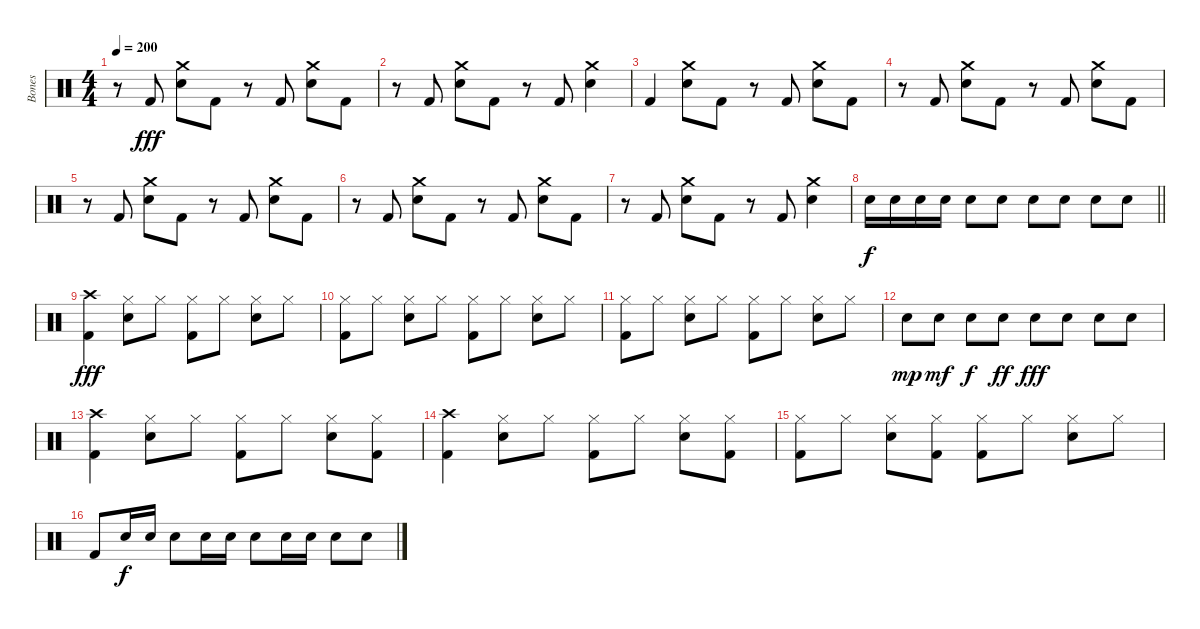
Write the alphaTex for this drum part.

\track ("Bones " "Bones ") {instrument percussion}
\staff {score}
\articulation defaults
\ts (4 4)
\tempo 200
\clef neutral
\ks c
r.8{dy fff} "Kick (hit) 2".8 ("Crash medium (hit)" "Snare (hit) 2").8 "Kick (hit) 2".8 r.8 "Kick (hit) 2".8 ("Crash medium (hit)" "Snare (hit) 2").8 "Kick (hit) 2".8 |
r.8 "Kick (hit) 2".8 ("Crash medium (hit)" "Snare (hit) 2").8 "Kick (hit) 2".8 r.8 "Kick (hit) 2".8 ("Crash medium (hit)" "Snare (hit) 2").4 |
"Kick (hit) 2".4 ("Crash medium (hit)" "Snare (hit) 2").8 "Kick (hit) 2".8 r.8 "Kick (hit) 2".8 ("Crash medium (hit)" "Snare (hit) 2").8 "Kick (hit) 2".8 |
r.8 "Kick (hit) 2".8 ("Crash medium (hit)" "Snare (hit) 2").8 "Kick (hit) 2".8 r.8 "Kick (hit) 2".8 ("Crash medium (hit)" "Snare (hit) 2").8 "Kick (hit) 2".8 |
r.8 "Kick (hit) 2".8 ("Crash medium (hit)" "Snare (hit) 2").8 "Kick (hit) 2".8 r.8 "Kick (hit) 2".8 ("Crash medium (hit)" "Snare (hit) 2").8 "Kick (hit) 2".8 |
r.8 "Kick (hit) 2".8 ("Crash medium (hit)" "Snare (hit) 2").8 "Kick (hit) 2".8 r.8 "Kick (hit) 2".8 ("Crash medium (hit)" "Snare (hit) 2").8 "Kick (hit) 2".8 |
r.8 "Kick (hit) 2".8 ("Crash medium (hit)" "Snare (hit) 2").8 "Kick (hit) 2".8 r.8 "Kick (hit) 2".8 ("Crash medium (hit)" "Snare (hit) 2").4 |
\barLineRight lightlight "Snare (hit) 2".16{dy f} "Snare (hit) 2".16 "Snare (hit) 2".16 "Snare (hit) 2".16 "Snare (hit) 2".8 "Snare (hit) 2".8 "Snare (hit) 2".8 "Snare (hit) 2".8 "Snare (hit) 2".8 "Snare (hit) 2".8
|
("Crash high (hit)" "Kick (hit) 2").4{dy fff} ("Hi-Hat (closed)" "Snare (hit) 2").8 "Hi-Hat (closed)".8 ("Hi-Hat (closed)" "Kick (hit) 2").8 "Hi-Hat (closed)".8 ("Hi-Hat (closed)" "Snare (hit) 2").8 "Hi-Hat (closed)".8 |
("Hi-Hat (closed)" "Kick (hit) 2").8 "Hi-Hat (closed)".8 ("Hi-Hat (closed)" "Snare (hit) 2").8 "Hi-Hat (closed)".8 ("Hi-Hat (closed)" "Kick (hit) 2").8 "Hi-Hat (closed)".8 ("Hi-Hat (closed)" "Snare (hit) 2").8 "Hi-Hat (closed)".8 |
("Hi-Hat (closed)" "Kick (hit) 2").8 "Hi-Hat (closed)".8 ("Hi-Hat (closed)" "Snare (hit) 2").8 "Hi-Hat (closed)".8 ("Hi-Hat (closed)" "Kick (hit) 2").8 "Hi-Hat (closed)".8 ("Hi-Hat (closed)" "Snare (hit) 2").8 "Hi-Hat (closed)".8 |
"Snare (hit) 2".8{dy mp} "Snare (hit) 2".8{dy mf} "Snare (hit) 2".8{dy f} "Snare (hit) 2".8{dy ff} "Snare (hit) 2".8{dy fff} "Snare (hit) 2".8 "Snare (hit) 2".8 "Snare (hit) 2".8 |
("Crash high (hit)" "Kick (hit) 2").4 ("Hi-Hat (closed)" "Snare (hit) 2").8 "Hi-Hat (closed)".8 ("Hi-Hat (closed)" "Kick (hit) 2").8 "Hi-Hat (closed)".8 ("Hi-Hat (closed)" "Snare (hit) 2").8 ("Hi-Hat (closed)" "Kick (hit) 2").8 |
("Crash high (hit)" "Kick (hit) 2").4 ("Hi-Hat (closed)" "Snare (hit) 2").8 "Hi-Hat (closed)".8 ("Hi-Hat (closed)" "Kick (hit) 2").8 "Hi-Hat (closed)".8 ("Hi-Hat (closed)" "Snare (hit) 2").8 ("Hi-Hat (closed)" "Kick (hit) 2").8 |
("Hi-Hat (closed)" "Kick (hit) 2").8 "Hi-Hat (closed)".8 ("Hi-Hat (closed)" "Snare (hit) 2").8 ("Hi-Hat (closed)" "Kick (hit) 2").8 ("Hi-Hat (closed)" "Kick (hit) 2").8 "Hi-Hat (closed)".8 ("Hi-Hat (closed)" "Snare (hit) 2").8 "Hi-Hat (closed)".8 |
"Kick (hit) 2".8 "Snare (hit) 2".16{dy f} "Snare (hit) 2".16 "Snare (hit) 2".8 "Snare (hit) 2".16 "Snare (hit) 2".16 "Snare (hit) 2".8 "Snare (hit) 2".16 "Snare (hit) 2".16 "Snare (hit) 2".8 "Snare (hit) 2".8
